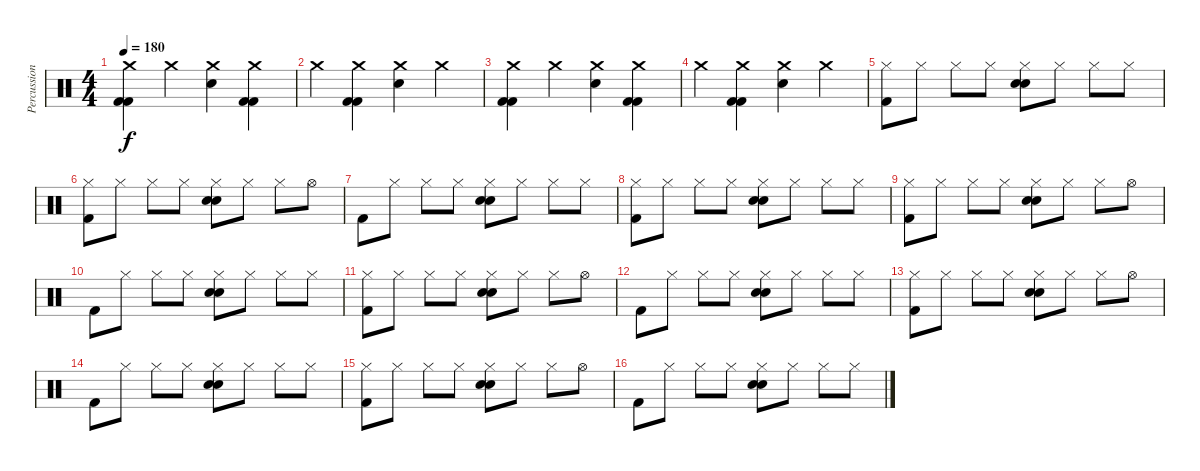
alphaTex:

\track ("Percussion" "Percussion") {instrument percussion}
\staff {score}
\articulation defaults
\ts (4 4)
\tempo 180
\clef neutral
\ks c
("Crash medium (hit)" "Kick (hit) 2" "Kick (hit) 2").4{dy f} "Crash medium (hit)".4 ("Crash medium (hit)" "Electric Snare (hit)").4 ("Crash medium (hit)" "Kick (hit) 2" "Kick (hit) 2").4 |
"Crash medium (hit)".4 ("Crash medium (hit)" "Kick (hit) 2" "Kick (hit) 2").4 ("Crash medium (hit)" "Electric Snare (hit)").4 "Crash medium (hit)".4 |
("Crash medium (hit)" "Kick (hit) 2" "Kick (hit) 2").4 "Crash medium (hit)".4 ("Crash medium (hit)" "Electric Snare (hit)").4 ("Crash medium (hit)" "Kick (hit) 2" "Kick (hit) 2").4 |
"Crash medium (hit)".4 ("Crash medium (hit)" "Kick (hit) 2" "Kick (hit) 2").4 ("Crash medium (hit)" "Electric Snare (hit)").4 "Crash medium (hit)".4 |
("Hi-Hat (closed)" "Kick (hit) 2").8 "Hi-Hat (closed)".8 "Hi-Hat (closed)".8 "Hi-Hat (closed)".8 ("Hi-Hat (closed)" "Electric Snare (hit)" "Snare (hit) 2").8 "Hi-Hat (closed)".8 "Hi-Hat (closed)".8 "Hi-Hat (closed)".8 |
("Hi-Hat (closed)" "Kick (hit) 2").8 "Hi-Hat (closed)".8 "Hi-Hat (closed)".8 "Hi-Hat (closed)".8 ("Hi-Hat (closed)" "Electric Snare (hit)" "Snare (hit) 2").8 "Hi-Hat (closed)".8 "Hi-Hat (closed)".8 "Hi-Hat (open)".8 |
"Kick (hit) 2".8 "Hi-Hat (closed)".8 "Hi-Hat (closed)".8 "Hi-Hat (closed)".8 ("Hi-Hat (closed)" "Electric Snare (hit)" "Snare (hit) 2").8 "Hi-Hat (closed)".8 "Hi-Hat (closed)".8 "Hi-Hat (closed)".8 |
("Hi-Hat (closed)" "Kick (hit) 2").8 "Hi-Hat (closed)".8 "Hi-Hat (closed)".8 "Hi-Hat (closed)".8 ("Hi-Hat (closed)" "Electric Snare (hit)" "Snare (hit) 2").8 "Hi-Hat (closed)".8 "Hi-Hat (closed)".8 "Hi-Hat (closed)".8 |
("Hi-Hat (closed)" "Kick (hit) 2").8 "Hi-Hat (closed)".8 "Hi-Hat (closed)".8 "Hi-Hat (closed)".8 ("Hi-Hat (closed)" "Electric Snare (hit)" "Snare (hit) 2").8 "Hi-Hat (closed)".8 "Hi-Hat (closed)".8 "Hi-Hat (open)".8 |
"Kick (hit) 2".8 "Hi-Hat (closed)".8 "Hi-Hat (closed)".8 "Hi-Hat (closed)".8 ("Hi-Hat (closed)" "Electric Snare (hit)" "Snare (hit) 2").8 "Hi-Hat (closed)".8 "Hi-Hat (closed)".8 "Hi-Hat (closed)".8 |
("Hi-Hat (closed)" "Kick (hit) 2").8 "Hi-Hat (closed)".8 "Hi-Hat (closed)".8 "Hi-Hat (closed)".8 ("Hi-Hat (closed)" "Electric Snare (hit)" "Snare (hit) 2").8 "Hi-Hat (closed)".8 "Hi-Hat (closed)".8 "Hi-Hat (open)".8 |
"Kick (hit) 2".8 "Hi-Hat (closed)".8 "Hi-Hat (closed)".8 "Hi-Hat (closed)".8 ("Hi-Hat (closed)" "Electric Snare (hit)" "Snare (hit) 2").8 "Hi-Hat (closed)".8 "Hi-Hat (closed)".8 "Hi-Hat (closed)".8 |
("Hi-Hat (closed)" "Kick (hit) 2").8 "Hi-Hat (closed)".8 "Hi-Hat (closed)".8 "Hi-Hat (closed)".8 ("Hi-Hat (closed)" "Electric Snare (hit)" "Snare (hit) 2").8 "Hi-Hat (closed)".8 "Hi-Hat (closed)".8 "Hi-Hat (open)".8 |
"Kick (hit) 2".8 "Hi-Hat (closed)".8 "Hi-Hat (closed)".8 "Hi-Hat (closed)".8 ("Hi-Hat (closed)" "Electric Snare (hit)" "Snare (hit) 2").8 "Hi-Hat (closed)".8 "Hi-Hat (closed)".8 "Hi-Hat (closed)".8 |
("Hi-Hat (closed)" "Kick (hit) 2").8 "Hi-Hat (closed)".8 "Hi-Hat (closed)".8 "Hi-Hat (closed)".8 ("Hi-Hat (closed)" "Electric Snare (hit)" "Snare (hit) 2").8 "Hi-Hat (closed)".8 "Hi-Hat (closed)".8 "Hi-Hat (open)".8 |
"Kick (hit) 2".8 "Hi-Hat (closed)".8 "Hi-Hat (closed)".8 "Hi-Hat (closed)".8 ("Hi-Hat (closed)" "Electric Snare (hit)" "Snare (hit) 2").8 "Hi-Hat (closed)".8 "Hi-Hat (closed)".8 "Hi-Hat (closed)".8
